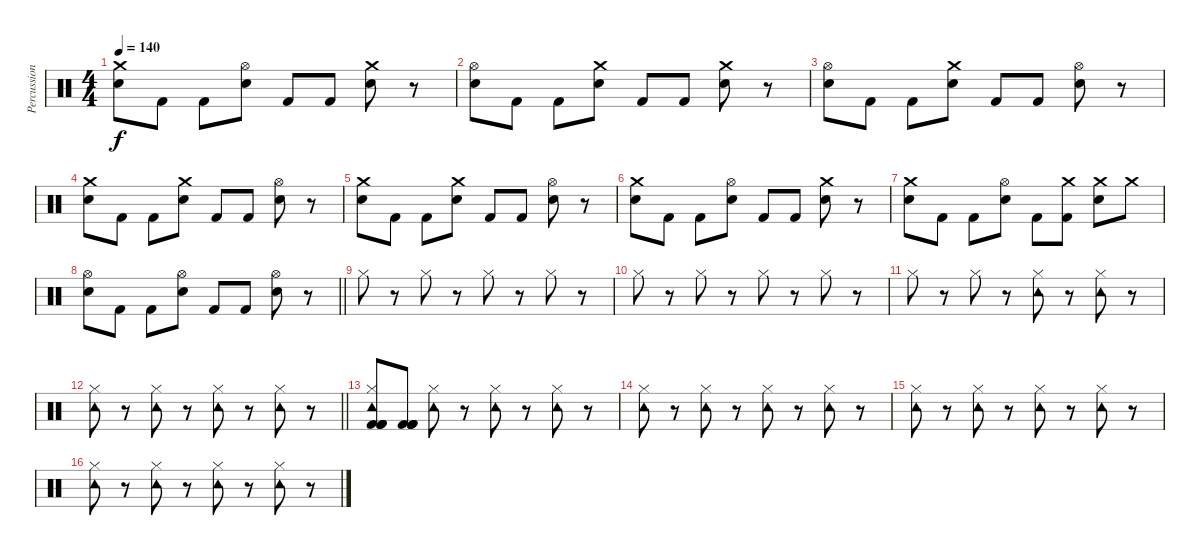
\track ("Percussion" "Percussion") {instrument percussion}
\staff {score}
\articulation defaults
\ts (4 4)
\tempo 140
\clef neutral
\ks c
("Electric Snare (hit)" "Crash medium (hit)").8{dy f} "Kick (hit) 2".8 "Kick (hit) 2".8 ("Electric Snare (hit)" "Hi-Hat (open)").8 "Kick (hit) 2".8 "Kick (hit) 2".8 ("Electric Snare (hit)" "Crash medium (hit)").8 r.8 |
("Electric Snare (hit)" "Hi-Hat (open)").8 "Kick (hit) 2".8 "Kick (hit) 2".8 ("Electric Snare (hit)" "Crash medium (hit)").8 "Kick (hit) 2".8 "Kick (hit) 2".8 ("Electric Snare (hit)" "Crash medium (hit)").8 r.8 |
("Electric Snare (hit)" "Hi-Hat (open)").8 "Kick (hit) 2".8 "Kick (hit) 2".8 ("Electric Snare (hit)" "Crash medium (hit)").8 "Kick (hit) 2".8 "Kick (hit) 2".8 ("Electric Snare (hit)" "Hi-Hat (open)").8 r.8 |
("Electric Snare (hit)" "Crash medium (hit)").8 "Kick (hit) 2".8 "Kick (hit) 2".8 ("Electric Snare (hit)" "Crash medium (hit)").8 "Kick (hit) 2".8 "Kick (hit) 2".8 ("Electric Snare (hit)" "Hi-Hat (open)").8 r.8 |
("Electric Snare (hit)" "Crash medium (hit)").8 "Kick (hit) 2".8 "Kick (hit) 2".8 ("Electric Snare (hit)" "Crash medium (hit)").8 "Kick (hit) 2".8 "Kick (hit) 2".8 ("Electric Snare (hit)" "Hi-Hat (open)").8 r.8 |
("Electric Snare (hit)" "Crash medium (hit)").8 "Kick (hit) 2".8 "Kick (hit) 2".8 ("Electric Snare (hit)" "Hi-Hat (open)").8 "Kick (hit) 2".8 "Kick (hit) 2".8 ("Electric Snare (hit)" "Crash medium (hit)").8 r.8 |
("Electric Snare (hit)" "Crash medium (hit)").8 "Kick (hit) 2".8 "Kick (hit) 2".8 ("Electric Snare (hit)" "Hi-Hat (open)").8 "Kick (hit) 2".8 ("Kick (hit) 2" "Crash medium (hit)").8 ("Electric Snare (hit)" "Crash medium (hit)").8 "Crash medium (hit)".8 |
\barLineRight lightlight
("Electric Snare (hit)" "Hi-Hat (open)").8 "Kick (hit) 2".8 "Kick (hit) 2".8 ("Electric Snare (hit)" "Hi-Hat (open)").8 "Kick (hit) 2".8 "Kick (hit) 2".8 ("Electric Snare (hit)" "Hi-Hat (open)").8 r.8 |
"Hi-Hat (closed)".8 r.8 "Hi-Hat (closed)".8 r.8 "Hi-Hat (closed)".8 r.8 "Hi-Hat (closed)".8 r.8 |
"Hi-Hat (closed)".8 r.8 "Hi-Hat (closed)".8 r.8 "Hi-Hat (closed)".8 r.8 "Hi-Hat (closed)".8 r.8 |
"Hi-Hat (closed)".8 r.8 "Hi-Hat (closed)".8 r.8 ("Hi-Hat (closed)" "Tambourine (hit)").8 r.8 ("Hi-Hat (closed)" "Tambourine (hit)").8 r.8 |
\barLineRight lightlight
("Hi-Hat (closed)" "Tambourine (hit)").8 r.8 ("Hi-Hat (closed)" "Tambourine (hit)").8 r.8 ("Hi-Hat (closed)" "Tambourine (hit)").8 r.8 ("Hi-Hat (closed)" "Tambourine (hit)").8 r.8 |
("Hi-Hat (closed)" "Kick (hit) 2" "Kick (hit) 2" "Tambourine (hit)" "Kick (hit) 2" "Kick (hit) 2").8 ("Kick (hit) 2" "Kick (hit) 2" "Kick (hit) 2" "Kick (hit) 2").8 ("Hi-Hat (closed)" "Tambourine (hit)").8 r.8 ("Hi-Hat (closed)" "Tambourine (hit)").8 r.8 ("Hi-Hat (closed)" "Tambourine (hit)").8 r.8 |
("Hi-Hat (closed)" "Tambourine (hit)").8 r.8 ("Hi-Hat (closed)" "Tambourine (hit)").8 r.8 ("Hi-Hat (closed)" "Tambourine (hit)").8 r.8 ("Hi-Hat (closed)" "Tambourine (hit)").8 r.8 |
("Hi-Hat (closed)" "Tambourine (hit)").8 r.8 ("Hi-Hat (closed)" "Tambourine (hit)").8 r.8 ("Hi-Hat (closed)" "Tambourine (hit)").8 r.8 ("Hi-Hat (closed)" "Tambourine (hit)").8 r.8 |
("Hi-Hat (closed)" "Tambourine (hit)").8 r.8 ("Hi-Hat (closed)" "Tambourine (hit)").8 r.8 ("Hi-Hat (closed)" "Tambourine (hit)").8 r.8 ("Hi-Hat (closed)" "Tambourine (hit)").8 r.8
